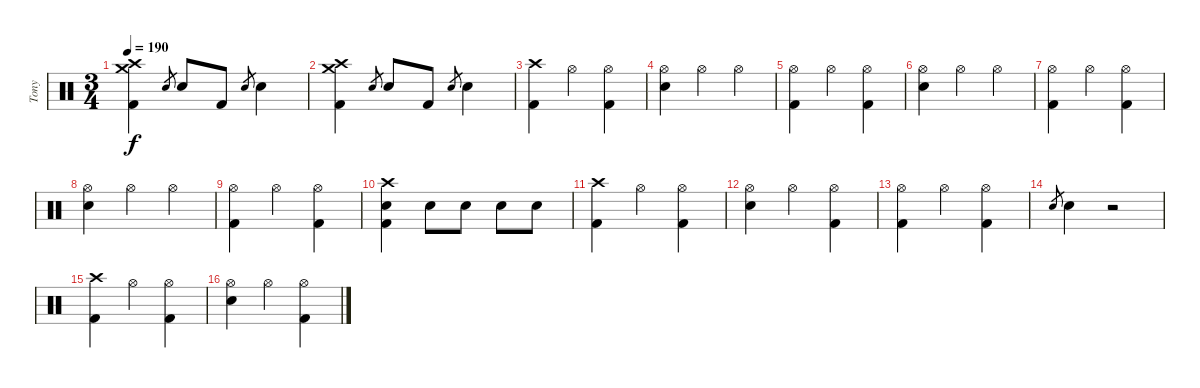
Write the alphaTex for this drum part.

\track ("Tony" "Tony") {instrument percussion}
\staff {score}
\articulation defaults
\ts (3 4)
\tempo 190
\clef neutral
\ks c
("Crash high (hit)" "Crash medium (hit)" "Kick (hit) 2").4{dy f} "Snare (hit) 2".8{gr} "Snare (hit) 2".8 "Kick (hit) 2".8 "Snare (hit) 2".8{gr} "Snare (hit) 2".4 |
("Crash high (hit)" "Crash medium (hit)" "Kick (hit) 2").4 "Snare (hit) 2".8{gr} "Snare (hit) 2".8 "Kick (hit) 2".8 "Snare (hit) 2".8{gr} "Snare (hit) 2".4 |
("Crash high (hit)" "Kick (hit) 2").4 "Hi-Hat (open)".4 ("Hi-Hat (open)" "Kick (hit) 2").4 |
("Hi-Hat (open)" "Snare (hit) 2").4 "Hi-Hat (open)".4 "Hi-Hat (open)".4 |
("Hi-Hat (open)" "Kick (hit) 2").4 "Hi-Hat (open)".4 ("Hi-Hat (open)" "Kick (hit) 2").4 |
("Hi-Hat (open)" "Snare (hit) 2").4 "Hi-Hat (open)".4 "Hi-Hat (open)".4 |
("Hi-Hat (open)" "Kick (hit) 2").4 "Hi-Hat (open)".4 ("Hi-Hat (open)" "Kick (hit) 2").4 |
("Hi-Hat (open)" "Snare (hit) 2").4 "Hi-Hat (open)".4 "Hi-Hat (open)".4 |
("Hi-Hat (open)" "Kick (hit) 2").4 "Hi-Hat (open)".4 ("Hi-Hat (open)" "Kick (hit) 2").4 |
("Crash high (hit)" "Snare (hit) 2" "Kick (hit) 2").4 "Snare (hit) 2".8 "Snare (hit) 2".8 "Snare (hit) 2".8 "Snare (hit) 2".8 |
("Crash high (hit)" "Kick (hit) 2").4 "Hi-Hat (open)".4 ("Hi-Hat (open)" "Kick (hit) 2").4 |
("Hi-Hat (open)" "Snare (hit) 2").4 "Hi-Hat (open)".4 ("Hi-Hat (open)" "Kick (hit) 2").4 |
("Hi-Hat (open)" "Kick (hit) 2").4 "Hi-Hat (open)".4 ("Hi-Hat (open)" "Kick (hit) 2").4 |
"Snare (hit) 2".8{gr} "Snare (hit) 2".4 r.2 |
("Crash high (hit)" "Kick (hit) 2").4 "Hi-Hat (open)".4 ("Hi-Hat (open)" "Kick (hit) 2").4 |
("Hi-Hat (open)" "Snare (hit) 2").4 "Hi-Hat (open)".4 ("Hi-Hat (open)" "Kick (hit) 2").4
